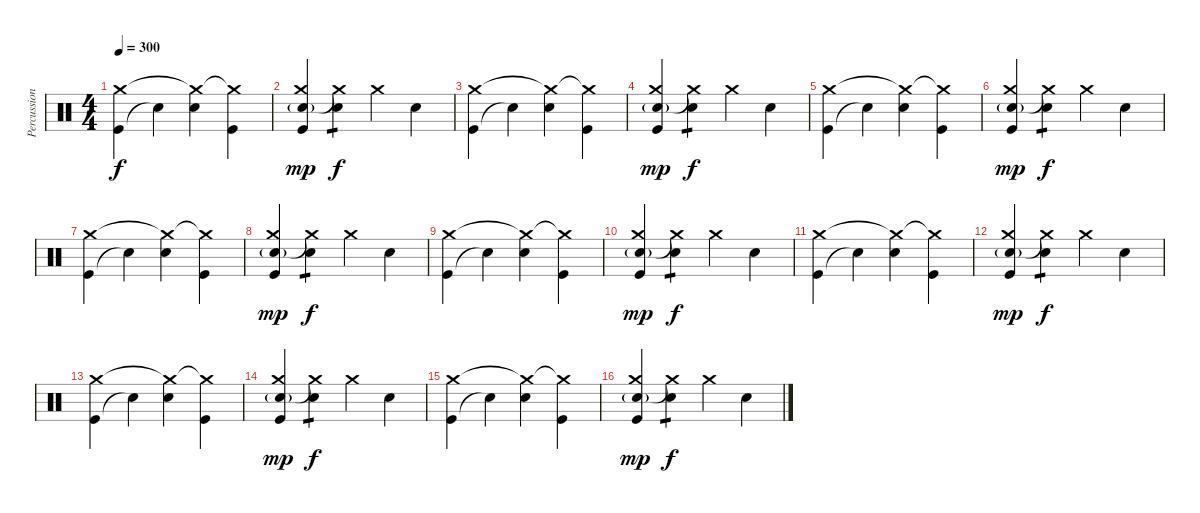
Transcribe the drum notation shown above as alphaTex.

\track ("Percussion" "Percussion") {instrument percussion}
\staff {score}
\articulation defaults
\ts (4 4)
\tempo 300
\clef neutral
\ks c
("Kick (hit)" "Crash medium (hit)").4{dy f} "Snare (hit)"{t}.4 ("Electric Snare (hit)" "Crash medium (hit)"{t}).4 ("Kick (hit)" "Crash medium (hit)"{t}).4 |
("Kick (hit)" "Electric Snare (hit)"{g} "Crash medium (hit)").4{dy mp} ("Electric Snare (hit)" "Crash medium (hit)"{t}).4{tp 1 dy f} "Crash medium (hit)".4 "Electric Snare (hit)".4 |
("Kick (hit)" "Crash medium (hit)").4 "Snare (hit)"{t}.4 ("Electric Snare (hit)" "Crash medium (hit)"{t}).4 ("Kick (hit)" "Crash medium (hit)"{t}).4 |
("Kick (hit)" "Electric Snare (hit)"{g} "Crash medium (hit)").4{dy mp} ("Electric Snare (hit)" "Crash medium (hit)"{t}).4{tp 1 dy f} "Crash medium (hit)".4 "Electric Snare (hit)".4 |
("Kick (hit)" "Crash medium (hit)").4 "Snare (hit)"{t}.4 ("Electric Snare (hit)" "Crash medium (hit)"{t}).4 ("Kick (hit)" "Crash medium (hit)"{t}).4 |
("Kick (hit)" "Electric Snare (hit)"{g} "Crash medium (hit)").4{dy mp} ("Electric Snare (hit)" "Crash medium (hit)"{t}).4{tp 1 dy f} "Crash medium (hit)".4 "Electric Snare (hit)".4 |
("Kick (hit)" "Crash medium (hit)").4 "Snare (hit)"{t}.4 ("Electric Snare (hit)" "Crash medium (hit)"{t}).4 ("Kick (hit)" "Crash medium (hit)"{t}).4 |
("Kick (hit)" "Electric Snare (hit)"{g} "Crash medium (hit)").4{dy mp} ("Electric Snare (hit)" "Crash medium (hit)"{t}).4{tp 1 dy f} "Crash medium (hit)".4 "Electric Snare (hit)".4 |
("Kick (hit)" "Crash medium (hit)").4 "Snare (hit)"{t}.4 ("Electric Snare (hit)" "Crash medium (hit)"{t}).4 ("Kick (hit)" "Crash medium (hit)"{t}).4 |
("Kick (hit)" "Electric Snare (hit)"{g} "Crash medium (hit)").4{dy mp} ("Electric Snare (hit)" "Crash medium (hit)"{t}).4{tp 1 dy f} "Crash medium (hit)".4 "Electric Snare (hit)".4 |
("Kick (hit)" "Crash medium (hit)").4 "Snare (hit)"{t}.4 ("Electric Snare (hit)" "Crash medium (hit)"{t}).4 ("Kick (hit)" "Crash medium (hit)"{t}).4 |
("Kick (hit)" "Electric Snare (hit)"{g} "Crash medium (hit)").4{dy mp} ("Electric Snare (hit)" "Crash medium (hit)"{t}).4{tp 1 dy f} "Crash medium (hit)".4 "Electric Snare (hit)".4 |
("Kick (hit)" "Crash medium (hit)").4 "Snare (hit)"{t}.4 ("Electric Snare (hit)" "Crash medium (hit)"{t}).4 ("Kick (hit)" "Crash medium (hit)"{t}).4 |
("Kick (hit)" "Electric Snare (hit)"{g} "Crash medium (hit)").4{dy mp} ("Electric Snare (hit)" "Crash medium (hit)"{t}).4{tp 1 dy f} "Crash medium (hit)".4 "Electric Snare (hit)".4 |
("Kick (hit)" "Crash medium (hit)").4 "Snare (hit)"{t}.4 ("Electric Snare (hit)" "Crash medium (hit)"{t}).4 ("Kick (hit)" "Crash medium (hit)"{t}).4 |
("Kick (hit)" "Electric Snare (hit)"{g} "Crash medium (hit)").4{dy mp} ("Electric Snare (hit)" "Crash medium (hit)"{t}).4{tp 1 dy f} "Crash medium (hit)".4 "Electric Snare (hit)".4
